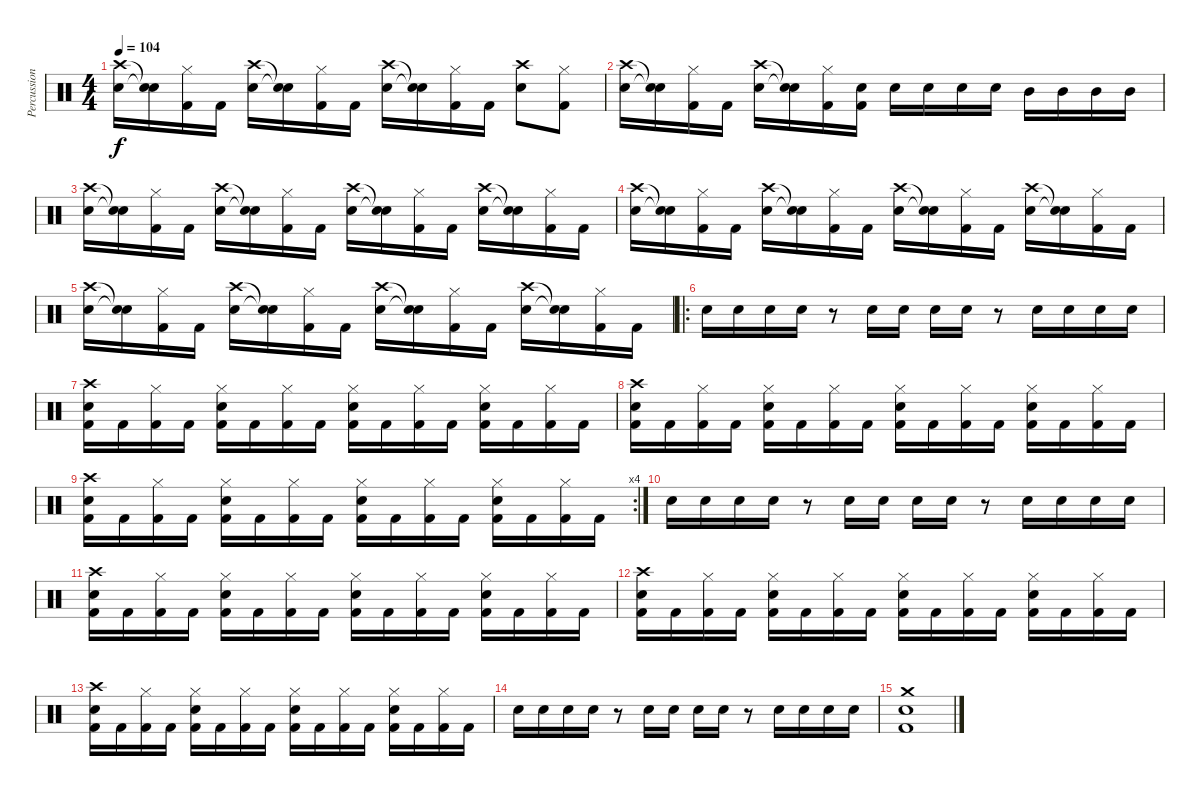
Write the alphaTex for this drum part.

\track ("Percussion" "Percussion") {instrument percussion}
\staff {score}
\articulation defaults
\ts (4 4)
\tempo 104
\clef neutral
\ks c
("Crash high (hit)" "Snare (hit) 2").16{dy f} ("Snare (hit)"{t} "Snare (hit)"{t}).16 ("Hi-Hat (closed)" "Kick (hit) 2").16 "Kick (hit) 2".16 ("Crash high (hit)" "Snare (hit) 2").16 ("Snare (hit)"{t} "Snare (hit)"{t}).16 ("Hi-Hat (closed)" "Kick (hit) 2").16 "Kick (hit) 2".16 ("Crash high (hit)" "Snare (hit) 2").16 ("Snare (hit)"{t} "Snare (hit)"{t}).16 ("Hi-Hat (closed)" "Kick (hit) 2").16 "Kick (hit) 2".16 ("Crash high (hit)" "Snare (hit) 2").8 ("Hi-Hat (closed)" "Kick (hit) 2").8 |
("Crash high (hit)" "Snare (hit) 2").16 ("Snare (hit)"{t} "Snare (hit)"{t}).16 ("Hi-Hat (closed)" "Kick (hit) 2").16 "Kick (hit) 2".16 ("Crash high (hit)" "Snare (hit) 2").16 ("Snare (hit)"{t} "Snare (hit)"{t}).16 ("Hi-Hat (closed)" "Kick (hit) 2").16 ("Snare (hit) 2" "Kick (hit) 2").16 "Snare (hit) 2".16 "Snare (hit) 2".16 "Snare (hit) 2".16 "Snare (hit) 2".16 "Mid Tom (hit)".16 "Mid Tom (hit)".16 "Mid Tom (hit)".16 "Mid Tom (hit)".16 |
("Crash high (hit)" "Snare (hit) 2").16 ("Snare (hit)"{t} "Snare (hit)"{t}).16 ("Hi-Hat (closed)" "Kick (hit) 2").16 "Kick (hit) 2".16 ("Crash high (hit)" "Snare (hit) 2").16 ("Snare (hit)"{t} "Snare (hit)"{t}).16 ("Hi-Hat (closed)" "Kick (hit) 2").16 "Kick (hit) 2".16 ("Crash high (hit)" "Snare (hit) 2").16 ("Snare (hit)"{t} "Snare (hit)"{t}).16 ("Hi-Hat (closed)" "Kick (hit) 2").16 "Kick (hit) 2".16 ("Crash high (hit)" "Snare (hit) 2").16 ("Snare (hit)"{t} "Snare (hit)"{t}).16 ("Hi-Hat (closed)" "Kick (hit) 2").16 "Kick (hit) 2".16 |
("Crash high (hit)" "Snare (hit) 2").16 ("Snare (hit)"{t} "Snare (hit)"{t}).16 ("Hi-Hat (closed)" "Kick (hit) 2").16 "Kick (hit) 2".16 ("Crash high (hit)" "Snare (hit) 2").16 ("Snare (hit)"{t} "Snare (hit)"{t}).16 ("Hi-Hat (closed)" "Kick (hit) 2").16 "Kick (hit) 2".16 ("Crash high (hit)" "Snare (hit) 2").16 ("Snare (hit)"{t} "Snare (hit)"{t}).16 ("Hi-Hat (closed)" "Kick (hit) 2").16 "Kick (hit) 2".16 ("Crash high (hit)" "Snare (hit) 2").16 ("Snare (hit)"{t} "Snare (hit)"{t}).16 ("Hi-Hat (closed)" "Kick (hit) 2").16 "Kick (hit) 2".16 |
("Crash high (hit)" "Snare (hit) 2").16 ("Snare (hit)"{t} "Snare (hit)"{t}).16 ("Hi-Hat (closed)" "Kick (hit) 2").16 "Kick (hit) 2".16 ("Crash high (hit)" "Snare (hit) 2").16 ("Snare (hit)"{t} "Snare (hit)"{t}).16 ("Hi-Hat (closed)" "Kick (hit) 2").16 "Kick (hit) 2".16 ("Crash high (hit)" "Snare (hit) 2").16 ("Snare (hit)"{t} "Snare (hit)"{t}).16 ("Hi-Hat (closed)" "Kick (hit) 2").16 "Kick (hit) 2".16 ("Crash high (hit)" "Snare (hit) 2").16 ("Snare (hit)"{t} "Snare (hit)"{t}).16 ("Hi-Hat (closed)" "Kick (hit) 2").16 "Kick (hit) 2".16 |
\ro "Snare (hit) 2".16 "Snare (hit) 2".16 "Snare (hit) 2".16 "Snare (hit) 2".16
r.8 "Snare (hit) 2".16 "Snare (hit) 2".16 "Snare (hit) 2".16 "Snare (hit) 2".16 r.8 "Snare (hit) 2".16 "Snare (hit) 2".16 "Snare (hit) 2".16 "Snare (hit) 2".16 |
("Crash high (hit)" "Snare (hit) 2" "Kick (hit) 2").16 "Kick (hit) 2".16 ("Hi-Hat (closed)" "Kick (hit) 2").16 "Kick (hit) 2".16 ("Hi-Hat (closed)" "Snare (hit) 2" "Kick (hit) 2").16 "Kick (hit) 2".16 ("Hi-Hat (closed)" "Kick (hit) 2").16 "Kick (hit) 2".16 ("Hi-Hat (closed)" "Snare (hit) 2" "Kick (hit) 2").16 "Kick (hit) 2".16 ("Hi-Hat (closed)" "Kick (hit) 2").16 "Kick (hit) 2".16 ("Hi-Hat (closed)" "Snare (hit) 2" "Kick (hit) 2").16 "Kick (hit) 2".16 ("Hi-Hat (closed)" "Kick (hit) 2").16 "Kick (hit) 2".16 |
("Crash high (hit)" "Snare (hit) 2" "Kick (hit) 2").16 "Kick (hit) 2".16 ("Hi-Hat (closed)" "Kick (hit) 2").16 "Kick (hit) 2".16 ("Hi-Hat (closed)" "Snare (hit) 2" "Kick (hit) 2").16 "Kick (hit) 2".16 ("Hi-Hat (closed)" "Kick (hit) 2").16 "Kick (hit) 2".16 ("Hi-Hat (closed)" "Snare (hit) 2" "Kick (hit) 2").16 "Kick (hit) 2".16 ("Hi-Hat (closed)" "Kick (hit) 2").16 "Kick (hit) 2".16 ("Hi-Hat (closed)" "Snare (hit) 2" "Kick (hit) 2").16 "Kick (hit) 2".16 ("Hi-Hat (closed)" "Kick (hit) 2").16 "Kick (hit) 2".16 |
\rc 4
("Crash high (hit)" "Snare (hit) 2" "Kick (hit) 2").16 "Kick (hit) 2".16 ("Hi-Hat (closed)" "Kick (hit) 2").16 "Kick (hit) 2".16 ("Hi-Hat (closed)" "Snare (hit) 2" "Kick (hit) 2").16 "Kick (hit) 2".16 ("Hi-Hat (closed)" "Kick (hit) 2").16 "Kick (hit) 2".16 ("Hi-Hat (closed)" "Snare (hit) 2" "Kick (hit) 2").16 "Kick (hit) 2".16 ("Hi-Hat (closed)" "Kick (hit) 2").16 "Kick (hit) 2".16 ("Hi-Hat (closed)" "Snare (hit) 2" "Kick (hit) 2").16 "Kick (hit) 2".16 ("Hi-Hat (closed)" "Kick (hit) 2").16 "Kick (hit) 2".16 |
"Snare (hit) 2".16 "Snare (hit) 2".16 "Snare (hit) 2".16 "Snare (hit) 2".16 r.8 "Snare (hit) 2".16 "Snare (hit) 2".16 "Snare (hit) 2".16 "Snare (hit) 2".16 r.8 "Snare (hit) 2".16 "Snare (hit) 2".16 "Snare (hit) 2".16 "Snare (hit) 2".16 |
("Crash high (hit)" "Snare (hit) 2" "Kick (hit) 2").16 "Kick (hit) 2".16 ("Hi-Hat (closed)" "Kick (hit) 2").16 "Kick (hit) 2".16 ("Hi-Hat (closed)" "Snare (hit) 2" "Kick (hit) 2").16 "Kick (hit) 2".16 ("Hi-Hat (closed)" "Kick (hit) 2").16 "Kick (hit) 2".16 ("Hi-Hat (closed)" "Snare (hit) 2" "Kick (hit) 2").16 "Kick (hit) 2".16 ("Hi-Hat (closed)" "Kick (hit) 2").16 "Kick (hit) 2".16 ("Hi-Hat (closed)" "Snare (hit) 2" "Kick (hit) 2").16 "Kick (hit) 2".16 ("Hi-Hat (closed)" "Kick (hit) 2").16 "Kick (hit) 2".16 |
("Crash high (hit)" "Snare (hit) 2" "Kick (hit) 2").16 "Kick (hit) 2".16 ("Hi-Hat (closed)" "Kick (hit) 2").16 "Kick (hit) 2".16 ("Hi-Hat (closed)" "Snare (hit) 2" "Kick (hit) 2").16 "Kick (hit) 2".16 ("Hi-Hat (closed)" "Kick (hit) 2").16 "Kick (hit) 2".16 ("Hi-Hat (closed)" "Snare (hit) 2" "Kick (hit) 2").16 "Kick (hit) 2".16 ("Hi-Hat (closed)" "Kick (hit) 2").16 "Kick (hit) 2".16 ("Hi-Hat (closed)" "Snare (hit) 2" "Kick (hit) 2").16 "Kick (hit) 2".16 ("Hi-Hat (closed)" "Kick (hit) 2").16 "Kick (hit) 2".16 |
("Crash high (hit)" "Snare (hit) 2" "Kick (hit) 2").16 "Kick (hit) 2".16 ("Hi-Hat (closed)" "Kick (hit) 2").16 "Kick (hit) 2".16 ("Hi-Hat (closed)" "Snare (hit) 2" "Kick (hit) 2").16 "Kick (hit) 2".16 ("Hi-Hat (closed)" "Kick (hit) 2").16 "Kick (hit) 2".16 ("Hi-Hat (closed)" "Snare (hit) 2" "Kick (hit) 2").16 "Kick (hit) 2".16 ("Hi-Hat (closed)" "Kick (hit) 2").16 "Kick (hit) 2".16 ("Hi-Hat (closed)" "Snare (hit) 2" "Kick (hit) 2").16 "Kick (hit) 2".16 ("Hi-Hat (closed)" "Kick (hit) 2").16 "Kick (hit) 2".16 |
"Snare (hit) 2".16 "Snare (hit) 2".16 "Snare (hit) 2".16 "Snare (hit) 2".16 r.8 "Snare (hit) 2".16 "Snare (hit) 2".16 "Snare (hit) 2".16 "Snare (hit) 2".16 r.8 "Snare (hit) 2".16 "Snare (hit) 2".16 "Snare (hit) 2".16 "Snare (hit) 2".16 |
("Crash medium (hit)" "Electric Snare (hit)" "Kick (hit) 2").1
